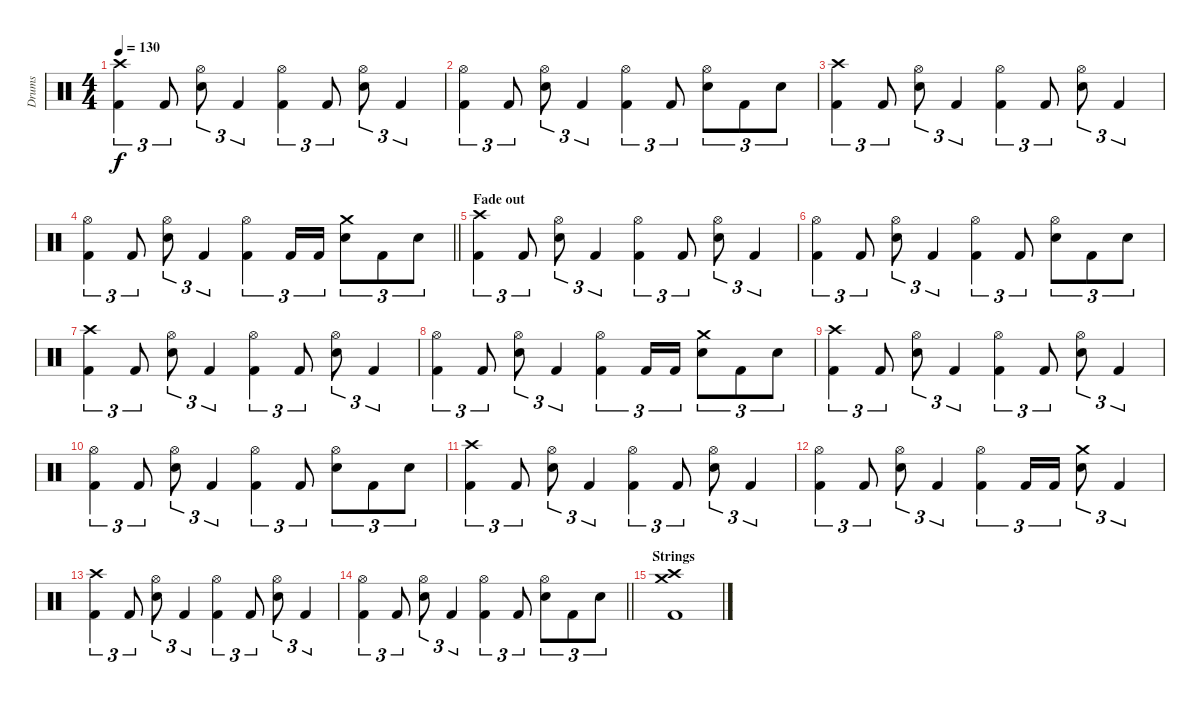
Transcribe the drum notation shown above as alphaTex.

\track ("Drums" "Drums") {instrument percussion}
\staff {score}
\articulation defaults
\ts (4 4)
\tempo 130
\clef neutral
\ks c
("Crash high (hit)" "Kick (hit) 2").4{tu (3 2) dy f} "Kick (hit) 2".8{tu (3 2)} ("Hi-Hat (open)" "Electric Snare (hit)").8{tu (3 2)} "Kick (hit) 2".4{tu (3 2)} ("Hi-Hat (open)" "Kick (hit) 2").4{tu (3 2)} "Kick (hit) 2".8{tu (3 2)} ("Hi-Hat (open)" "Electric Snare (hit)").8{tu (3 2)} "Kick (hit) 2".4{tu (3 2)} |
("Hi-Hat (open)" "Kick (hit) 2").4{tu (3 2)} "Kick (hit) 2".8{tu (3 2)} ("Hi-Hat (open)" "Electric Snare (hit)").8{tu (3 2)} "Kick (hit) 2".4{tu (3 2)} ("Hi-Hat (open)" "Kick (hit) 2").4{tu (3 2)} "Kick (hit) 2".8{tu (3 2)} ("Hi-Hat (open)" "Electric Snare (hit)").8{tu (3 2)} "Kick (hit) 2".8{tu (3 2)} "Electric Snare (hit)".8{tu (3 2)} |
("Crash high (hit)" "Kick (hit) 2").4{tu (3 2)} "Kick (hit) 2".8{tu (3 2)} ("Hi-Hat (open)" "Electric Snare (hit)").8{tu (3 2)} "Kick (hit) 2".4{tu (3 2)} ("Hi-Hat (open)" "Kick (hit) 2").4{tu (3 2)} "Kick (hit) 2".8{tu (3 2)} ("Hi-Hat (open)" "Electric Snare (hit)").8{tu (3 2)} "Kick (hit) 2".4{tu (3 2)} |
\barLineRight lightlight
("Hi-Hat (open)" "Kick (hit) 2").4{tu (3 2)} "Kick (hit) 2".8{tu (3 2)} ("Hi-Hat (open)" "Electric Snare (hit)").8{tu (3 2)} "Kick (hit) 2".4{tu (3 2)} ("Hi-Hat (open)" "Kick (hit) 2").4{tu (3 2)} "Kick (hit) 2".16{tu (3 2)} "Kick (hit) 2".16{tu (3 2)} ("Crash medium (hit)" "Electric Snare (hit)").8{tu (3 2)} "Kick (hit) 2".8{tu (3 2)} "Electric Snare (hit)".8{tu (3 2)} |
\section ("" "Fade out")
("Crash high (hit)" "Kick (hit) 2").4{tu (3 2) volume 9} "Kick (hit) 2".8{tu (3 2)} ("Hi-Hat (open)" "Electric Snare (hit)").8{tu (3 2)} "Kick (hit) 2".4{tu (3 2)} ("Hi-Hat (open)" "Kick (hit) 2").4{tu (3 2)} "Kick (hit) 2".8{tu (3 2)} ("Hi-Hat (open)" "Electric Snare (hit)").8{tu (3 2)} "Kick (hit) 2".4{tu (3 2)} |
("Hi-Hat (open)" "Kick (hit) 2").4{tu (3 2)} "Kick (hit) 2".8{tu (3 2)} ("Hi-Hat (open)" "Electric Snare (hit)").8{tu (3 2)} "Kick (hit) 2".4{tu (3 2)} ("Hi-Hat (open)" "Kick (hit) 2").4{tu (3 2)} "Kick (hit) 2".8{tu (3 2)} ("Hi-Hat (open)" "Electric Snare (hit)").8{tu (3 2)} "Kick (hit) 2".8{tu (3 2)} "Electric Snare (hit)".8{tu (3 2)} |
("Crash high (hit)" "Kick (hit) 2").4{tu (3 2)} "Kick (hit) 2".8{tu (3 2)} ("Hi-Hat (open)" "Electric Snare (hit)").8{tu (3 2)} "Kick (hit) 2".4{tu (3 2)} ("Hi-Hat (open)" "Kick (hit) 2").4{tu (3 2)} "Kick (hit) 2".8{tu (3 2)} ("Hi-Hat (open)" "Electric Snare (hit)").8{tu (3 2)} "Kick (hit) 2".4{tu (3 2)} |
("Hi-Hat (open)" "Kick (hit) 2").4{tu (3 2)} "Kick (hit) 2".8{tu (3 2)} ("Hi-Hat (open)" "Electric Snare (hit)").8{tu (3 2)} "Kick (hit) 2".4{tu (3 2)} ("Hi-Hat (open)" "Kick (hit) 2").4{tu (3 2)} "Kick (hit) 2".16{tu (3 2)} "Kick (hit) 2".16{tu (3 2)} ("Crash medium (hit)" "Electric Snare (hit)").8{tu (3 2)} "Kick (hit) 2".8{tu (3 2)} "Electric Snare (hit)".8{tu (3 2)} |
("Crash high (hit)" "Kick (hit) 2").4{tu (3 2) volume 2} "Kick (hit) 2".8{tu (3 2)} ("Hi-Hat (open)" "Electric Snare (hit)").8{tu (3 2)} "Kick (hit) 2".4{tu (3 2)} ("Hi-Hat (open)" "Kick (hit) 2").4{tu (3 2)} "Kick (hit) 2".8{tu (3 2)} ("Hi-Hat (open)" "Electric Snare (hit)").8{tu (3 2)} "Kick (hit) 2".4{tu (3 2)} |
("Hi-Hat (open)" "Kick (hit) 2").4{tu (3 2)} "Kick (hit) 2".8{tu (3 2)} ("Hi-Hat (open)" "Electric Snare (hit)").8{tu (3 2)} "Kick (hit) 2".4{tu (3 2)} ("Hi-Hat (open)" "Kick (hit) 2").4{tu (3 2)} "Kick (hit) 2".8{tu (3 2)} ("Hi-Hat (open)" "Electric Snare (hit)").8{tu (3 2)} "Kick (hit) 2".8{tu (3 2)} "Electric Snare (hit)".8{tu (3 2)} |
("Crash high (hit)" "Kick (hit) 2").4{tu (3 2)} "Kick (hit) 2".8{tu (3 2)} ("Hi-Hat (open)" "Electric Snare (hit)").8{tu (3 2)} "Kick (hit) 2".4{tu (3 2)} ("Hi-Hat (open)" "Kick (hit) 2").4{tu (3 2)} "Kick (hit) 2".8{tu (3 2)} ("Hi-Hat (open)" "Electric Snare (hit)").8{tu (3 2)} "Kick (hit) 2".4{tu (3 2)} |
("Hi-Hat (open)" "Kick (hit) 2").4{tu (3 2)} "Kick (hit) 2".8{tu (3 2)} ("Hi-Hat (open)" "Electric Snare (hit)").8{tu (3 2)} "Kick (hit) 2".4{tu (3 2)} ("Hi-Hat (open)" "Kick (hit) 2").4{tu (3 2)} "Kick (hit) 2".16{tu (3 2)} "Kick (hit) 2".16{tu (3 2)} ("Crash medium (hit)" "Electric Snare (hit)").8{tu (3 2)} "Kick (hit) 2".4{tu (3 2)} |
("Crash high (hit)" "Kick (hit) 2").4{tu (3 2) volume 0} "Kick (hit) 2".8{tu (3 2)} ("Hi-Hat (open)" "Electric Snare (hit)").8{tu (3 2)} "Kick (hit) 2".4{tu (3 2)} ("Hi-Hat (open)" "Kick (hit) 2").4{tu (3 2)} "Kick (hit) 2".8{tu (3 2)} ("Hi-Hat (open)" "Electric Snare (hit)").8{tu (3 2)} "Kick (hit) 2".4{tu (3 2)} |
\barLineRight lightlight
("Hi-Hat (open)" "Kick (hit) 2").4{tu (3 2)} "Kick (hit) 2".8{tu (3 2)} ("Hi-Hat (open)" "Electric Snare (hit)").8{tu (3 2)} "Kick (hit) 2".4{tu (3 2)} ("Hi-Hat (open)" "Kick (hit) 2").4{tu (3 2)} "Kick (hit) 2".8{tu (3 2)} ("Hi-Hat (open)" "Electric Snare (hit)").8{tu (3 2)} "Kick (hit) 2".8{tu (3 2)} "Electric Snare (hit)".8{tu (3 2)} |
\section ("" "Strings")
("Crash medium (hit)" "Crash high (hit)" "Kick (hit) 2").1
